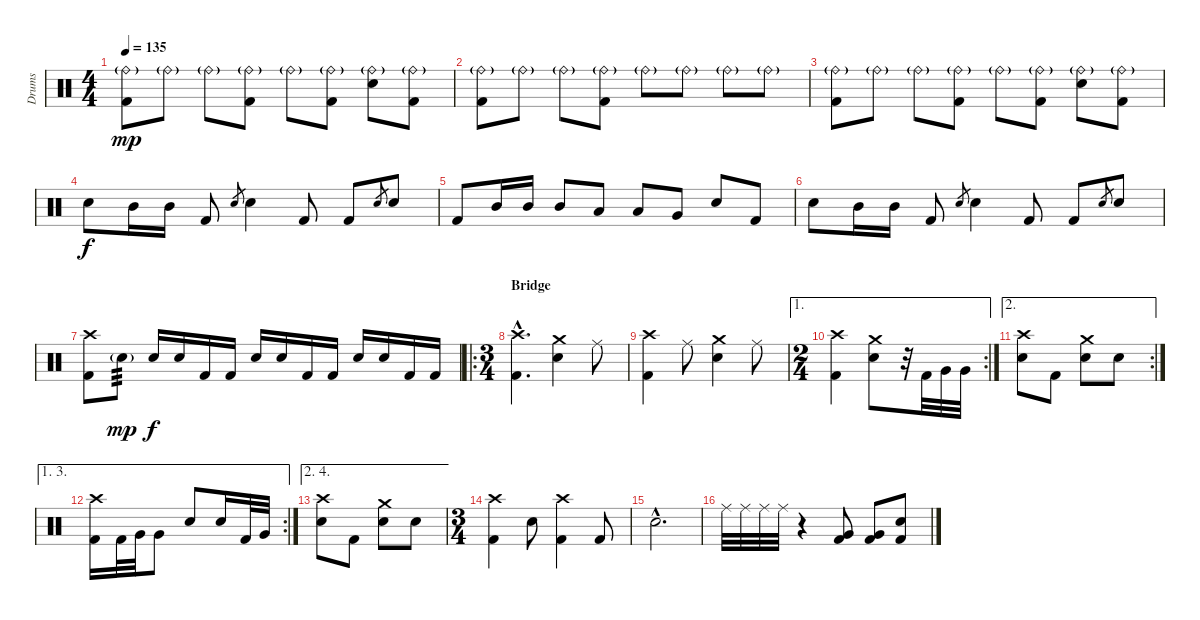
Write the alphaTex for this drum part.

\track ("Drums" "Drums") {instrument percussion}
\staff {score}
\articulation defaults
\ts (4 4)
\tempo 135
\clef neutral
\ks c
("Ride (bell)"{g} "Kick (hit) 2").8{dy mp} "Ride (bell)"{g}.8 "Ride (bell)"{g}.8 ("Ride (bell)"{g} "Kick (hit) 2").8 "Ride (bell)"{g}.8 ("Ride (bell)"{g} "Kick (hit) 2").8 ("Ride (bell)"{g} "Electric Snare (hit)").8 ("Ride (bell)"{g} "Kick (hit) 2").8 |
("Ride (bell)"{g} "Kick (hit) 2").8 "Ride (bell)"{g}.8 "Ride (bell)"{g}.8 ("Ride (bell)"{g} "Kick (hit) 2").8 "Ride (bell)"{g}.8 "Ride (bell)"{g}.8 "Ride (bell)"{g}.8 "Ride (bell)"{g}.8 |
("Ride (bell)"{g} "Kick (hit) 2").8 "Ride (bell)"{g}.8 "Ride (bell)"{g}.8 ("Ride (bell)"{g} "Kick (hit) 2").8 "Ride (bell)"{g}.8 ("Ride (bell)"{g} "Kick (hit) 2").8 ("Ride (bell)"{g} "Electric Snare (hit)").8 ("Ride (bell)"{g} "Kick (hit) 2").8 |
"Electric Snare (hit)".8{dy f} "Mid Tom (hit)".16 "Mid Tom (hit)".16 "Kick (hit) 2".8 "Electric Snare (hit)".8{gr} "Electric Snare (hit)".4 "Kick (hit) 2".8 "Kick (hit) 2".8 "Electric Snare (hit)".8{gr} "Electric Snare (hit)".8 |
"Kick (hit) 2".8 "Mid Tom (hit)".16 "Mid Tom (hit)".16 "Mid Tom (hit)".8 "Low Tom (hit)".8 "Low Tom (hit)".8 "Very Low Tom (hit)".8 "Electric Snare (hit)".8 "Kick (hit) 2".8 |
"Electric Snare (hit)".8 "Mid Tom (hit)".16 "Mid Tom (hit)".16 "Kick (hit) 2".8 "Electric Snare (hit)".8{gr} "Electric Snare (hit)".4 "Kick (hit) 2".8 "Kick (hit) 2".8 "Electric Snare (hit)".8{gr} "Electric Snare (hit)".8 |
("Crash high (hit)" "Kick (hit) 2").8 "Electric Snare (hit)"{g}.8{tp 3 dy mp} "Electric Snare (hit)".16{dy f} "Electric Snare (hit)".16 "Kick (hit) 2".16 "Kick (hit) 2".16 "Electric Snare (hit)".16 "Electric Snare (hit)".16 "Kick (hit) 2".16 "Kick (hit) 2".16 "Electric Snare (hit)".16 "Electric Snare (hit)".16 "Kick (hit) 2".16 "Kick (hit) 2".16 |
\ro
\ts (3 4)
\section ("" "Bridge")
("Crash high (hit)"{hac} "Kick (hit) 2"{hac}).4{d} ("Crash medium (hit)" "Electric Snare (hit)").4 "Ride (middle)".8 |
("Crash high (hit)" "Kick (hit) 2").4 "Ride (middle)".8 ("Crash medium (hit)" "Electric Snare (hit)").4 "Ride (middle)".8 |
\ae 1
\rc 2
\ts (2 4)
("Crash high (hit)" "Kick (hit) 2").4 ("Crash medium (hit)" "Electric Snare (hit)").8 r.32 "Kick (hit) 2".32 "Very Low Tom (hit)".32 "Very Low Tom (hit)".32 |
\ae 2
\rc 2
("Crash high (hit)" "Electric Snare (hit)").8 "Kick (hit) 2".8 ("Crash medium (hit)" "Electric Snare (hit)").8 "Electric Snare (hit)".8 |
\ae (1 3)
\rc 2
("Crash high (hit)" "Kick (hit) 2").16 "Kick (hit) 2".32 "Very Low Tom (hit)".32 "Very Low Tom (hit)".8 "Electric Snare (hit)".8 "Electric Snare (hit)".16 "Kick (hit) 2".32 "Very Low Tom (hit)".32 |
\ae (2 4)
("Crash high (hit)" "Electric Snare (hit)").8 "Kick (hit) 2".8 ("Crash medium (hit)" "Electric Snare (hit)").8 "Electric Snare (hit)".8 |
\ts (3 4)
("Crash high (hit)" "Kick (hit) 2").4 "Electric Snare (hit)".8 ("Crash high (hit)" "Kick (hit) 2").4 "Kick (hit) 2".8 |
"Electric Snare (hit)"{hac}.2{d} |
"Ride (middle)".32 "Ride (middle)".32 "Ride (middle)".32 "Ride (middle)".32 r.4 ("Very Low Tom (hit)" "Kick (hit) 2").8 ("Very Low Tom (hit)" "Kick (hit) 2").8 ("Electric Snare (hit)" "Kick (hit) 2").8
